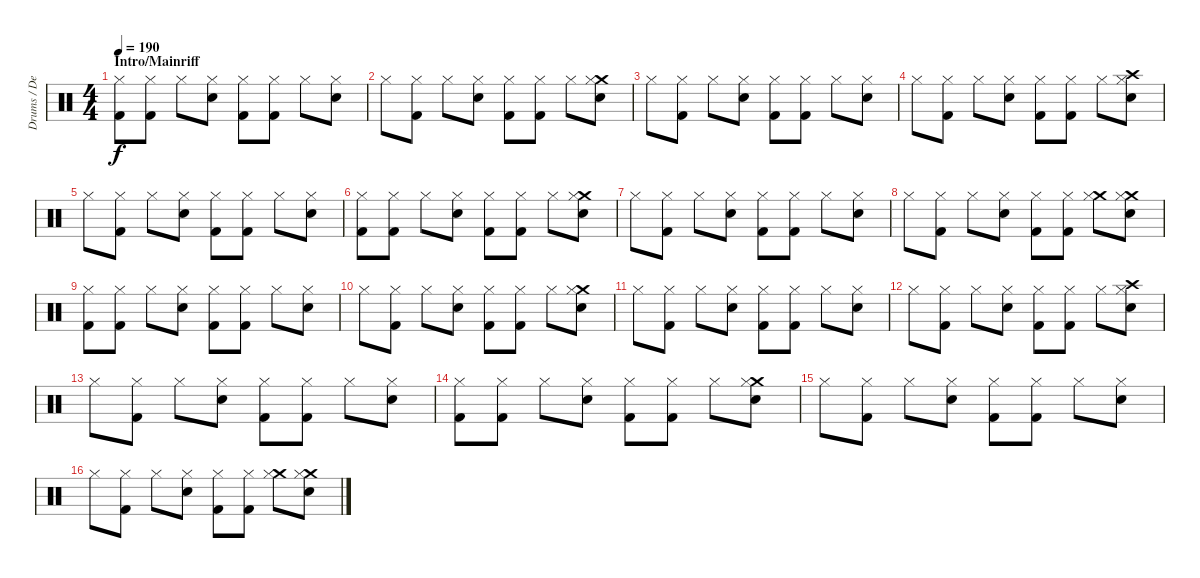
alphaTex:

\track ("Drums / Dennis" "Drums / De") {instrument percussion}
\staff {score}
\articulation defaults
\ts (4 4)
\section ("" "Intro/Mainriff")
\tempo 190
\clef neutral
\ks c
("Kick (hit) 2" "Hi-Hat (closed)").8{dy f} ("Kick (hit) 2" "Hi-Hat (closed)").8 "Hi-Hat (closed)".8 ("Snare (hit) 2" "Hi-Hat (closed)").8 ("Kick (hit) 2" "Hi-Hat (closed)").8 ("Kick (hit) 2" "Hi-Hat (closed)").8 "Hi-Hat (closed)".8 ("Snare (hit) 2" "Hi-Hat (closed)").8 |
"Hi-Hat (closed)".8 ("Kick (hit) 2" "Hi-Hat (closed)").8 "Hi-Hat (closed)".8 ("Snare (hit) 2" "Hi-Hat (closed)").8 ("Kick (hit) 2" "Hi-Hat (closed)").8 ("Kick (hit) 2" "Hi-Hat (closed)").8 "Hi-Hat (closed)".8 ("Crash medium (hit)" "Snare (hit) 2" "Hi-Hat (closed)").8 |
"Hi-Hat (closed)".8 ("Kick (hit) 2" "Hi-Hat (closed)").8 "Hi-Hat (closed)".8 ("Snare (hit) 2" "Hi-Hat (closed)").8 ("Kick (hit) 2" "Hi-Hat (closed)").8 ("Kick (hit) 2" "Hi-Hat (closed)").8 "Hi-Hat (closed)".8 ("Snare (hit) 2" "Hi-Hat (closed)").8 |
"Hi-Hat (closed)".8 ("Kick (hit) 2" "Hi-Hat (closed)").8 "Hi-Hat (closed)".8 ("Snare (hit) 2" "Hi-Hat (closed)").8 ("Kick (hit) 2" "Hi-Hat (closed)").8 ("Kick (hit) 2" "Hi-Hat (closed)").8 "Hi-Hat (closed)".8 ("Crash high (hit)" "Snare (hit) 2" "Hi-Hat (closed)").8 |
"Hi-Hat (closed)".8 ("Kick (hit) 2" "Hi-Hat (closed)").8 "Hi-Hat (closed)".8 ("Snare (hit) 2" "Hi-Hat (closed)").8 ("Kick (hit) 2" "Hi-Hat (closed)").8 ("Kick (hit) 2" "Hi-Hat (closed)").8 "Hi-Hat (closed)".8 ("Snare (hit) 2" "Hi-Hat (closed)").8 |
("Kick (hit) 2" "Hi-Hat (closed)").8 ("Kick (hit) 2" "Hi-Hat (closed)").8 "Hi-Hat (closed)".8 ("Snare (hit) 2" "Hi-Hat (closed)").8 ("Kick (hit) 2" "Hi-Hat (closed)").8 ("Kick (hit) 2" "Hi-Hat (closed)").8 "Hi-Hat (closed)".8 ("Crash medium (hit)" "Snare (hit) 2" "Hi-Hat (closed)").8 |
"Hi-Hat (closed)".8 ("Kick (hit) 2" "Hi-Hat (closed)").8 "Hi-Hat (closed)".8 ("Snare (hit) 2" "Hi-Hat (closed)").8 ("Kick (hit) 2" "Hi-Hat (closed)").8 ("Kick (hit) 2" "Hi-Hat (closed)").8 "Hi-Hat (closed)".8 ("Snare (hit) 2" "Hi-Hat (closed)").8 |
"Hi-Hat (closed)".8 ("Kick (hit) 2" "Hi-Hat (closed)").8 "Hi-Hat (closed)".8 ("Snare (hit) 2" "Hi-Hat (closed)").8 ("Kick (hit) 2" "Hi-Hat (closed)").8 ("Kick (hit) 2" "Hi-Hat (closed)").8 ("Crash medium (hit)" "Hi-Hat (closed)").8 ("Crash medium (hit)" "Snare (hit) 2" "Hi-Hat (closed)").8 |
("Kick (hit) 2" "Hi-Hat (closed)").8 ("Kick (hit) 2" "Hi-Hat (closed)").8 "Hi-Hat (closed)".8 ("Snare (hit) 2" "Hi-Hat (closed)").8 ("Kick (hit) 2" "Hi-Hat (closed)").8 ("Kick (hit) 2" "Hi-Hat (closed)").8 "Hi-Hat (closed)".8 ("Snare (hit) 2" "Hi-Hat (closed)").8 |
"Hi-Hat (closed)".8 ("Kick (hit) 2" "Hi-Hat (closed)").8 "Hi-Hat (closed)".8 ("Snare (hit) 2" "Hi-Hat (closed)").8 ("Kick (hit) 2" "Hi-Hat (closed)").8 ("Kick (hit) 2" "Hi-Hat (closed)").8 "Hi-Hat (closed)".8 ("Crash medium (hit)" "Snare (hit) 2" "Hi-Hat (closed)").8 |
"Hi-Hat (closed)".8 ("Kick (hit) 2" "Hi-Hat (closed)").8 "Hi-Hat (closed)".8 ("Snare (hit) 2" "Hi-Hat (closed)").8 ("Kick (hit) 2" "Hi-Hat (closed)").8 ("Kick (hit) 2" "Hi-Hat (closed)").8 "Hi-Hat (closed)".8 ("Snare (hit) 2" "Hi-Hat (closed)").8 |
"Hi-Hat (closed)".8 ("Kick (hit) 2" "Hi-Hat (closed)").8 "Hi-Hat (closed)".8 ("Snare (hit) 2" "Hi-Hat (closed)").8 ("Kick (hit) 2" "Hi-Hat (closed)").8 ("Kick (hit) 2" "Hi-Hat (closed)").8 "Hi-Hat (closed)".8 ("Crash high (hit)" "Snare (hit) 2" "Hi-Hat (closed)").8 |
"Hi-Hat (closed)".8 ("Kick (hit) 2" "Hi-Hat (closed)").8 "Hi-Hat (closed)".8 ("Snare (hit) 2" "Hi-Hat (closed)").8 ("Kick (hit) 2" "Hi-Hat (closed)").8 ("Kick (hit) 2" "Hi-Hat (closed)").8 "Hi-Hat (closed)".8 ("Snare (hit) 2" "Hi-Hat (closed)").8 |
("Kick (hit) 2" "Hi-Hat (closed)").8 ("Kick (hit) 2" "Hi-Hat (closed)").8 "Hi-Hat (closed)".8 ("Snare (hit) 2" "Hi-Hat (closed)").8 ("Kick (hit) 2" "Hi-Hat (closed)").8 ("Kick (hit) 2" "Hi-Hat (closed)").8 "Hi-Hat (closed)".8 ("Crash medium (hit)" "Snare (hit) 2" "Hi-Hat (closed)").8 |
"Hi-Hat (closed)".8 ("Kick (hit) 2" "Hi-Hat (closed)").8 "Hi-Hat (closed)".8 ("Snare (hit) 2" "Hi-Hat (closed)").8 ("Kick (hit) 2" "Hi-Hat (closed)").8 ("Kick (hit) 2" "Hi-Hat (closed)").8 "Hi-Hat (closed)".8 ("Snare (hit) 2" "Hi-Hat (closed)").8 |
"Hi-Hat (closed)".8 ("Kick (hit) 2" "Hi-Hat (closed)").8 "Hi-Hat (closed)".8 ("Snare (hit) 2" "Hi-Hat (closed)").8 ("Kick (hit) 2" "Hi-Hat (closed)").8 ("Kick (hit) 2" "Hi-Hat (closed)").8 ("Crash medium (hit)" "Hi-Hat (closed)").8 ("Crash medium (hit)" "Snare (hit) 2" "Hi-Hat (closed)").8
